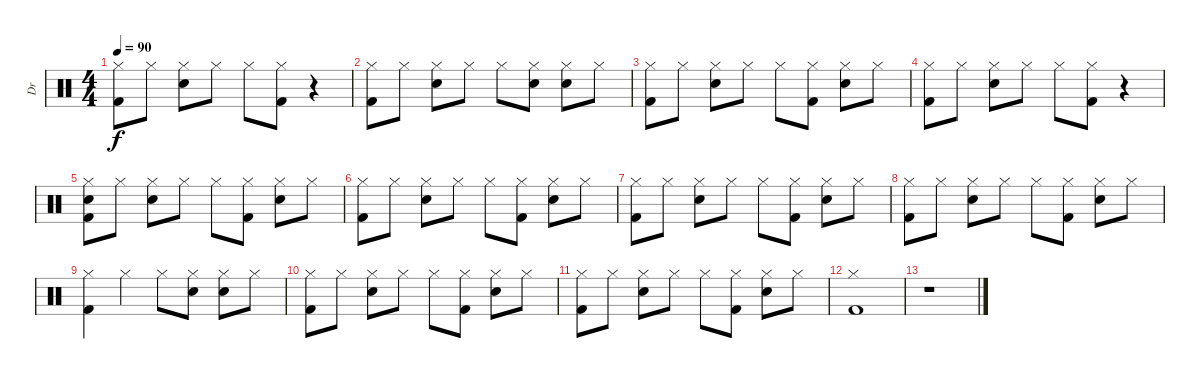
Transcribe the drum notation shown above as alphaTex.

\track ("Dr" "Dr") {instrument percussion}
\staff {score}
\articulation defaults
\ts (4 4)
\tempo 90
\clef neutral
\ks c
("Hi-Hat (closed)" "Kick (hit) 2").8{dy f} "Hi-Hat (closed)".8 ("Hi-Hat (closed)" "Electric Snare (hit)").8 "Hi-Hat (closed)".8 "Hi-Hat (closed)".8 ("Hi-Hat (closed)" "Kick (hit) 2").8 r.4 |
("Hi-Hat (closed)" "Kick (hit) 2").8 "Hi-Hat (closed)".8 ("Hi-Hat (closed)" "Electric Snare (hit)").8 "Hi-Hat (closed)".8 "Hi-Hat (closed)".8 ("Hi-Hat (closed)" "Electric Snare (hit)").8 ("Hi-Hat (closed)" "Electric Snare (hit)").8 "Hi-Hat (closed)".8 |
("Hi-Hat (closed)" "Kick (hit) 2").8 "Hi-Hat (closed)".8 ("Hi-Hat (closed)" "Electric Snare (hit)").8 "Hi-Hat (closed)".8 "Hi-Hat (closed)".8 ("Hi-Hat (closed)" "Kick (hit) 2").8 ("Hi-Hat (closed)" "Electric Snare (hit)").8 "Hi-Hat (closed)".8 |
("Hi-Hat (closed)" "Kick (hit) 2").8 "Hi-Hat (closed)".8 ("Hi-Hat (closed)" "Electric Snare (hit)").8 "Hi-Hat (closed)".8 "Hi-Hat (closed)".8 ("Hi-Hat (closed)" "Kick (hit) 2").8 r.4 |
("Hi-Hat (closed)" "Electric Snare (hit)" "Kick (hit) 2").8 "Hi-Hat (closed)".8 ("Hi-Hat (closed)" "Electric Snare (hit)").8 "Hi-Hat (closed)".8 "Hi-Hat (closed)".8 ("Hi-Hat (closed)" "Kick (hit) 2").8 ("Hi-Hat (closed)" "Electric Snare (hit)").8 "Hi-Hat (closed)".8 |
("Hi-Hat (closed)" "Kick (hit) 2").8 "Hi-Hat (closed)".8 ("Hi-Hat (closed)" "Electric Snare (hit)").8 "Hi-Hat (closed)".8 "Hi-Hat (closed)".8 ("Hi-Hat (closed)" "Kick (hit) 2").8 ("Hi-Hat (closed)" "Electric Snare (hit)").8 "Hi-Hat (closed)".8 |
("Hi-Hat (closed)" "Kick (hit) 2").8 "Hi-Hat (closed)".8 ("Hi-Hat (closed)" "Electric Snare (hit)").8 "Hi-Hat (closed)".8 "Hi-Hat (closed)".8 ("Hi-Hat (closed)" "Kick (hit) 2").8 ("Hi-Hat (closed)" "Electric Snare (hit)").8 "Hi-Hat (closed)".8 |
("Hi-Hat (closed)" "Kick (hit) 2").8 "Hi-Hat (closed)".8 ("Hi-Hat (closed)" "Electric Snare (hit)").8 "Hi-Hat (closed)".8 "Hi-Hat (closed)".8 ("Hi-Hat (closed)" "Kick (hit) 2").8 ("Hi-Hat (closed)" "Electric Snare (hit)").8 "Hi-Hat (closed)".8 |
("Hi-Hat (closed)" "Kick (hit) 2").4 "Hi-Hat (closed)".4 "Hi-Hat (closed)".8 ("Hi-Hat (closed)" "Electric Snare (hit)").8 ("Hi-Hat (closed)" "Electric Snare (hit)").8 "Hi-Hat (closed)".8 |
("Hi-Hat (closed)" "Kick (hit) 2").8 "Hi-Hat (closed)".8 ("Hi-Hat (closed)" "Electric Snare (hit)").8 "Hi-Hat (closed)".8 "Hi-Hat (closed)".8 ("Hi-Hat (closed)" "Kick (hit) 2").8 ("Hi-Hat (closed)" "Electric Snare (hit)").8 "Hi-Hat (closed)".8 |
("Hi-Hat (closed)" "Kick (hit) 2").8 "Hi-Hat (closed)".8 ("Hi-Hat (closed)" "Electric Snare (hit)").8 "Hi-Hat (closed)".8 "Hi-Hat (closed)".8 ("Hi-Hat (closed)" "Kick (hit) 2").8 ("Hi-Hat (closed)" "Electric Snare (hit)").8 "Hi-Hat (closed)".8 |
("Hi-Hat (closed)" "Kick (hit) 2").1 |
r.1
